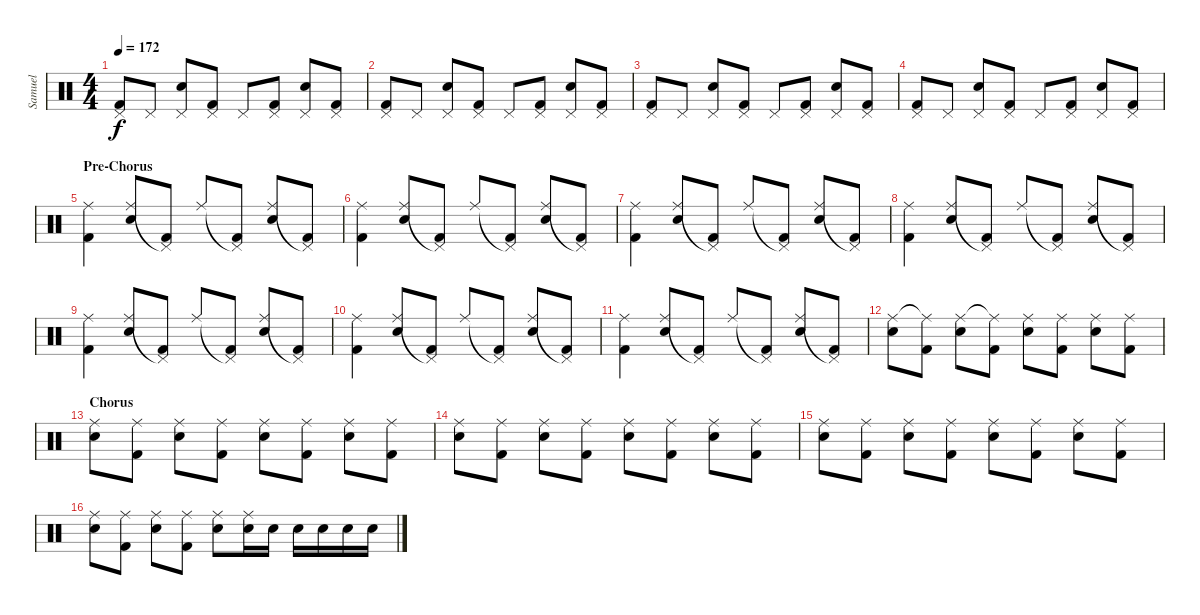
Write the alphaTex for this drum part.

\track ("Samuel" "Samuel") {instrument percussion}
\staff {score}
\articulation defaults
\ts (4 4)
\tempo 172
\clef neutral
\ks c
("Pedal Hi-Hat (hit)" "Kick (hit) 2").8{dy f} "Pedal Hi-Hat (hit)".8 ("Pedal Hi-Hat (hit)" "Snare (hit) 2").8 ("Pedal Hi-Hat (hit)" "Kick (hit) 2").8 "Pedal Hi-Hat (hit)".8 ("Pedal Hi-Hat (hit)" "Kick (hit) 2").8 ("Pedal Hi-Hat (hit)" "Snare (hit) 2").8 ("Pedal Hi-Hat (hit)" "Kick (hit) 2").8 |
("Pedal Hi-Hat (hit)" "Kick (hit) 2").8 "Pedal Hi-Hat (hit)".8 ("Pedal Hi-Hat (hit)" "Snare (hit) 2").8 ("Pedal Hi-Hat (hit)" "Kick (hit) 2").8 "Pedal Hi-Hat (hit)".8 ("Pedal Hi-Hat (hit)" "Kick (hit) 2").8 ("Pedal Hi-Hat (hit)" "Snare (hit) 2").8 ("Pedal Hi-Hat (hit)" "Kick (hit) 2").8 |
("Pedal Hi-Hat (hit)" "Kick (hit) 2").8 "Pedal Hi-Hat (hit)".8 ("Pedal Hi-Hat (hit)" "Snare (hit) 2").8 ("Pedal Hi-Hat (hit)" "Kick (hit) 2").8 "Pedal Hi-Hat (hit)".8 ("Pedal Hi-Hat (hit)" "Kick (hit) 2").8 ("Pedal Hi-Hat (hit)" "Snare (hit) 2").8 ("Pedal Hi-Hat (hit)" "Kick (hit) 2").8 |
("Pedal Hi-Hat (hit)" "Kick (hit) 2").8 "Pedal Hi-Hat (hit)".8 ("Pedal Hi-Hat (hit)" "Snare (hit) 2").8 ("Pedal Hi-Hat (hit)" "Kick (hit) 2").8 "Pedal Hi-Hat (hit)".8 ("Pedal Hi-Hat (hit)" "Kick (hit) 2").8 ("Pedal Hi-Hat (hit)" "Snare (hit) 2").8 ("Pedal Hi-Hat (hit)" "Kick (hit) 2").8 |
\section ("" "Pre-Chorus")
("Ride (middle)" "Kick (hit) 2").4 ("Ride (middle)" "Snare (hit) 2").8 ("Pedal Hi-Hat (hit)"{t} "Kick (hit) 2").8 "Ride (middle)".8 ("Pedal Hi-Hat (hit)"{t} "Kick (hit) 2").8 ("Ride (middle)" "Snare (hit) 2").8 ("Pedal Hi-Hat (hit)"{t} "Kick (hit) 2").8 |
("Ride (middle)" "Kick (hit) 2").4 ("Ride (middle)" "Snare (hit) 2").8 ("Pedal Hi-Hat (hit)"{t} "Kick (hit) 2").8 "Ride (middle)".8 ("Pedal Hi-Hat (hit)"{t} "Kick (hit) 2").8 ("Ride (middle)" "Snare (hit) 2").8 ("Pedal Hi-Hat (hit)"{t} "Kick (hit) 2").8 |
("Ride (middle)" "Kick (hit) 2").4 ("Ride (middle)" "Snare (hit) 2").8 ("Pedal Hi-Hat (hit)"{t} "Kick (hit) 2").8 "Ride (middle)".8 ("Pedal Hi-Hat (hit)"{t} "Kick (hit) 2").8 ("Ride (middle)" "Snare (hit) 2").8 ("Pedal Hi-Hat (hit)"{t} "Kick (hit) 2").8 |
("Ride (middle)" "Kick (hit) 2").4 ("Ride (middle)" "Snare (hit) 2").8 ("Pedal Hi-Hat (hit)"{t} "Kick (hit) 2").8 "Ride (middle)".8 ("Pedal Hi-Hat (hit)"{t} "Kick (hit) 2").8 ("Ride (middle)" "Snare (hit) 2").8 ("Pedal Hi-Hat (hit)"{t} "Kick (hit) 2").8 |
("Ride (middle)" "Kick (hit) 2").4 ("Ride (middle)" "Snare (hit) 2").8 ("Pedal Hi-Hat (hit)"{t} "Kick (hit) 2").8 "Ride (middle)".8 ("Pedal Hi-Hat (hit)"{t} "Kick (hit) 2").8 ("Ride (middle)" "Snare (hit) 2").8 ("Pedal Hi-Hat (hit)"{t} "Kick (hit) 2").8 |
("Ride (middle)" "Kick (hit) 2").4 ("Ride (middle)" "Snare (hit) 2").8 ("Pedal Hi-Hat (hit)"{t} "Kick (hit) 2").8 "Ride (middle)".8 ("Pedal Hi-Hat (hit)"{t} "Kick (hit) 2").8 ("Ride (middle)" "Snare (hit) 2").8 ("Pedal Hi-Hat (hit)"{t} "Kick (hit) 2").8 |
("Ride (middle)" "Kick (hit) 2").4 ("Ride (middle)" "Snare (hit) 2").8 ("Pedal Hi-Hat (hit)"{t} "Kick (hit) 2").8 "Ride (middle)".8 ("Pedal Hi-Hat (hit)"{t} "Kick (hit) 2").8 ("Ride (middle)" "Snare (hit) 2").8 ("Pedal Hi-Hat (hit)"{t} "Kick (hit) 2").8 |
("Ride (middle)" "Snare (hit) 2").8 ("Ride (middle)"{t} "Kick (hit) 2").8 ("Ride (middle)" "Snare (hit) 2").8 ("Ride (middle)"{t} "Kick (hit) 2").8 ("Ride (middle)" "Snare (hit) 2").8 ("Ride (middle)" "Kick (hit) 2").8 ("Ride (middle)" "Snare (hit) 2").8 ("Ride (middle)" "Kick (hit) 2").8 |
\section ("" "Chorus")
("Ride (middle)" "Snare (hit) 2").8 ("Ride (middle)" "Kick (hit) 2").8 ("Ride (middle)" "Snare (hit) 2").8 ("Ride (middle)" "Kick (hit) 2").8 ("Ride (middle)" "Snare (hit) 2").8 ("Ride (middle)" "Kick (hit) 2").8 ("Ride (middle)" "Snare (hit) 2").8 ("Ride (middle)" "Kick (hit) 2").8 |
("Ride (middle)" "Snare (hit) 2").8 ("Ride (middle)" "Kick (hit) 2").8 ("Ride (middle)" "Snare (hit) 2").8 ("Ride (middle)" "Kick (hit) 2").8 ("Ride (middle)" "Snare (hit) 2").8 ("Ride (middle)" "Kick (hit) 2").8 ("Ride (middle)" "Snare (hit) 2").8 ("Ride (middle)" "Kick (hit) 2").8 |
("Ride (middle)" "Snare (hit) 2").8 ("Ride (middle)" "Kick (hit) 2").8 ("Ride (middle)" "Snare (hit) 2").8 ("Ride (middle)" "Kick (hit) 2").8 ("Ride (middle)" "Snare (hit) 2").8 ("Ride (middle)" "Kick (hit) 2").8 ("Ride (middle)" "Snare (hit) 2").8 ("Ride (middle)" "Kick (hit) 2").8 |
("Ride (middle)" "Snare (hit) 2").8 ("Ride (middle)" "Kick (hit) 2").8 ("Ride (middle)" "Snare (hit) 2").8 ("Ride (middle)" "Kick (hit) 2").8 ("Ride (middle)" "Snare (hit) 2").8 ("Ride (middle)" "Snare (hit) 2").16 "Snare (hit) 2".16 "Snare (hit) 2".16 "Snare (hit) 2".16 "Snare (hit) 2".16 "Snare (hit) 2".16
